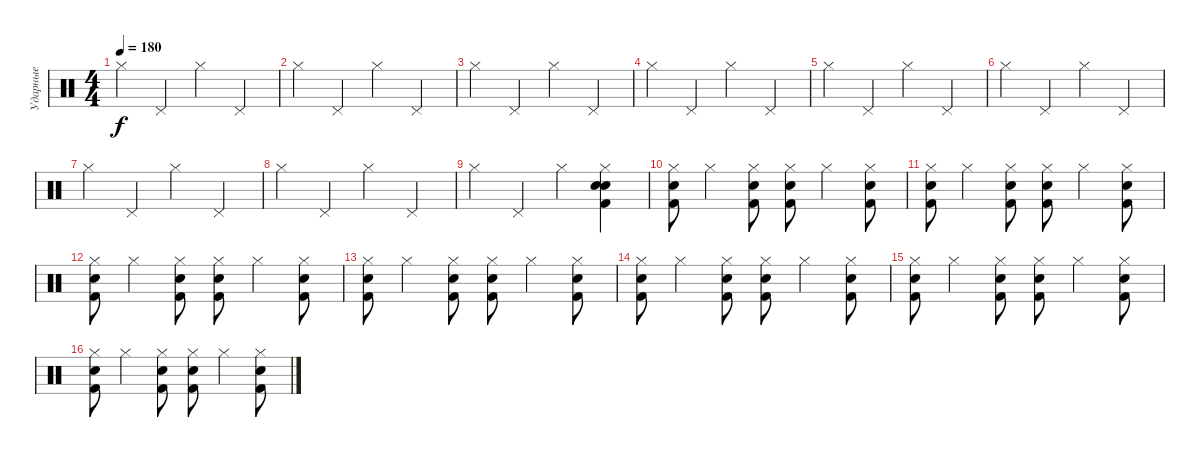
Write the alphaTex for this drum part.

\track ("Ударные" "Ударные") {instrument percussion}
\staff {score}
\articulation defaults
\ts (4 4)
\tempo 180
\clef neutral
\ks c "Hi-Hat (closed)".4{dy f} "Pedal Hi-Hat (hit)".4 "Hi-Hat (closed)".4 "Pedal Hi-Hat (hit)".4
|
"Hi-Hat (closed)".4 "Pedal Hi-Hat (hit)".4 "Hi-Hat (closed)".4 "Pedal Hi-Hat (hit)".4 |
"Hi-Hat (closed)".4 "Pedal Hi-Hat (hit)".4 "Hi-Hat (closed)".4 "Pedal Hi-Hat (hit)".4 |
"Hi-Hat (closed)".4 "Pedal Hi-Hat (hit)".4 "Hi-Hat (closed)".4 "Pedal Hi-Hat (hit)".4 |
"Hi-Hat (closed)".4 "Pedal Hi-Hat (hit)".4 "Hi-Hat (closed)".4 "Pedal Hi-Hat (hit)".4 |
"Hi-Hat (closed)".4 "Pedal Hi-Hat (hit)".4 "Hi-Hat (closed)".4 "Pedal Hi-Hat (hit)".4 |
"Hi-Hat (closed)".4 "Pedal Hi-Hat (hit)".4 "Hi-Hat (closed)".4 "Pedal Hi-Hat (hit)".4 |
"Hi-Hat (closed)".4 "Pedal Hi-Hat (hit)".4 "Hi-Hat (closed)".4 "Pedal Hi-Hat (hit)".4 |
"Hi-Hat (closed)".4 "Pedal Hi-Hat (hit)".4 "Hi-Hat (closed)".4 ("Hi-Hat (closed)" "Electric Snare (hit)" "Kick (hit) 2" "Snare (hit) 2").4 |
("Hi-Hat (closed)" "Electric Snare (hit)" "Kick (hit) 2").8 "Hi-Hat (closed)".4 ("Hi-Hat (closed)" "Electric Snare (hit)" "Kick (hit) 2").8 ("Hi-Hat (closed)" "Electric Snare (hit)" "Kick (hit) 2").8 "Hi-Hat (closed)".4 ("Hi-Hat (closed)" "Electric Snare (hit)" "Kick (hit) 2").8 |
("Hi-Hat (closed)" "Electric Snare (hit)" "Kick (hit) 2").8 "Hi-Hat (closed)".4 ("Hi-Hat (closed)" "Electric Snare (hit)" "Kick (hit) 2").8 ("Hi-Hat (closed)" "Electric Snare (hit)" "Kick (hit) 2").8 "Hi-Hat (closed)".4 ("Hi-Hat (closed)" "Electric Snare (hit)" "Kick (hit) 2").8 |
("Hi-Hat (closed)" "Electric Snare (hit)" "Kick (hit) 2").8 "Hi-Hat (closed)".4 ("Hi-Hat (closed)" "Electric Snare (hit)" "Kick (hit) 2").8 ("Hi-Hat (closed)" "Electric Snare (hit)" "Kick (hit) 2").8 "Hi-Hat (closed)".4 ("Hi-Hat (closed)" "Electric Snare (hit)" "Kick (hit) 2").8 |
("Hi-Hat (closed)" "Electric Snare (hit)" "Kick (hit) 2").8 "Hi-Hat (closed)".4 ("Hi-Hat (closed)" "Electric Snare (hit)" "Kick (hit) 2").8 ("Hi-Hat (closed)" "Electric Snare (hit)" "Kick (hit) 2").8 "Hi-Hat (closed)".4 ("Hi-Hat (closed)" "Electric Snare (hit)" "Kick (hit) 2").8 |
("Hi-Hat (closed)" "Electric Snare (hit)" "Kick (hit) 2").8 "Hi-Hat (closed)".4 ("Hi-Hat (closed)" "Electric Snare (hit)" "Kick (hit) 2").8 ("Hi-Hat (closed)" "Electric Snare (hit)" "Kick (hit) 2").8 "Hi-Hat (closed)".4 ("Hi-Hat (closed)" "Electric Snare (hit)" "Kick (hit) 2").8 |
("Hi-Hat (closed)" "Electric Snare (hit)" "Kick (hit) 2").8 "Hi-Hat (closed)".4 ("Hi-Hat (closed)" "Electric Snare (hit)" "Kick (hit) 2").8 ("Hi-Hat (closed)" "Electric Snare (hit)" "Kick (hit) 2").8 "Hi-Hat (closed)".4 ("Hi-Hat (closed)" "Electric Snare (hit)" "Kick (hit) 2").8 |
("Hi-Hat (closed)" "Electric Snare (hit)" "Kick (hit) 2").8 "Hi-Hat (closed)".4 ("Hi-Hat (closed)" "Electric Snare (hit)" "Kick (hit) 2").8 ("Hi-Hat (closed)" "Electric Snare (hit)" "Kick (hit) 2").8 "Hi-Hat (closed)".4 ("Hi-Hat (closed)" "Electric Snare (hit)" "Kick (hit) 2").8
